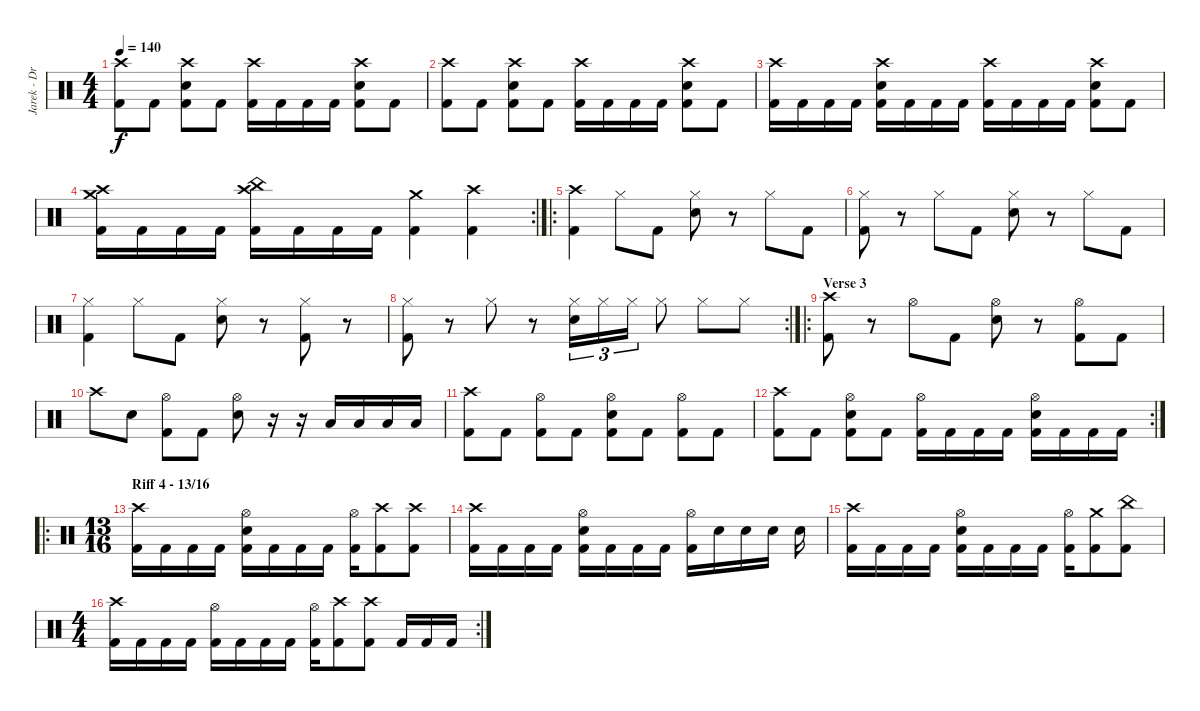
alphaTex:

\track ("Jarek - Drums" "Jarek - Dr") {instrument percussion}
\staff {score}
\articulation defaults
\ts (4 4)
\tempo 140
\clef neutral
\ks c
("Crash high (hit)" "Kick (hit) 2").8{dy f} "Kick (hit) 2".8 ("Crash high (hit)" "Snare (hit) 2" "Kick (hit) 2").8 "Kick (hit) 2".8 ("Crash high (hit)" "Kick (hit) 2").16 "Kick (hit) 2".16 "Kick (hit) 2".16 "Kick (hit) 2".16 ("Crash high (hit)" "Snare (hit) 2" "Kick (hit) 2").8 "Kick (hit) 2".8 |
("Crash high (hit)" "Kick (hit) 2").8 "Kick (hit) 2".8 ("Crash high (hit)" "Snare (hit) 2" "Kick (hit) 2").8 "Kick (hit) 2".8 ("Crash high (hit)" "Kick (hit) 2").16 "Kick (hit) 2".16 "Kick (hit) 2".16 "Kick (hit) 2".16 ("Crash high (hit)" "Snare (hit) 2" "Kick (hit) 2").8 "Kick (hit) 2".8 |
("Crash high (hit)" "Kick (hit) 2").16 "Kick (hit) 2".16 "Kick (hit) 2".16 "Kick (hit) 2".16 ("Crash high (hit)" "Snare (hit) 2" "Kick (hit) 2").16 "Kick (hit) 2".16 "Kick (hit) 2".16 "Kick (hit) 2".16 ("Crash high (hit)" "Kick (hit) 2").16 "Kick (hit) 2".16 "Kick (hit) 2".16 "Kick (hit) 2".16 ("Crash high (hit)" "Snare (hit) 2" "Kick (hit) 2").8 "Kick (hit) 2".8 |
\rc 2
("Crash high (hit)" "Crash medium (hit)" "Kick (hit) 2").16 "Kick (hit) 2".16 "Kick (hit) 2".16 "Kick (hit) 2".16 ("China (hit)" "Crash high (hit)" "Kick (hit) 2").16 "Kick (hit) 2".16 "Kick (hit) 2".16 "Kick (hit) 2".16 ("Crash medium (hit)" "Kick (hit) 2").4 ("Crash high (hit)" "Kick (hit) 2").4 |
\ro
("Crash high (hit)" "Kick (hit) 2").4 "Hi-Hat (closed)".8 "Kick (hit) 2".8 ("Hi-Hat (closed)" "Snare (hit) 2").8 r.8 "Hi-Hat (closed)".8 "Kick (hit) 2".8 |
("Hi-Hat (closed)" "Kick (hit) 2").8 r.8 "Hi-Hat (closed)".8 "Kick (hit) 2".8 ("Hi-Hat (closed)" "Snare (hit) 2").8 r.8 "Hi-Hat (closed)".8 "Kick (hit) 2".8 |
("Hi-Hat (closed)" "Kick (hit) 2").4 "Hi-Hat (closed)".8 "Kick (hit) 2".8 ("Hi-Hat (closed)" "Snare (hit) 2").8 r.8 ("Hi-Hat (closed)" "Kick (hit) 2").8 r.8 |
\rc 2
("Hi-Hat (closed)" "Kick (hit) 2").8 r.8 "Hi-Hat (closed)".8 r.8 ("Hi-Hat (closed)" "Snare (hit) 2").16{tu (3 2)} "Hi-Hat (closed)".16{tu (3 2)} "Hi-Hat (closed)".16{tu (3 2)} "Hi-Hat (closed)".8 "Hi-Hat (closed)".8 "Hi-Hat (closed)".8 |
\ro
\section ("" "Verse 3")
("Crash high (hit)" "Kick (hit) 2").8 r.8 "Hi-Hat (open)".8 "Kick (hit) 2".8 ("Hi-Hat (open)" "Snare (hit) 2").8 r.8 ("Hi-Hat (open)" "Kick (hit) 2").8 "Kick (hit) 2".8 |
"Crash high (hit)".8 "Snare (hit) 2".8 ("Hi-Hat (open)" "Kick (hit) 2").8 "Kick (hit) 2".8 ("Hi-Hat (open)" "Snare (hit) 2").8 r.16 r.16 "Low Tom (hit)".16 "Low Floor Tom (hit)".16 "Low Tom (hit)".16 "Low Floor Tom (hit)".16 |
("Crash high (hit)" "Kick (hit) 2").8 "Kick (hit) 2".8 ("Hi-Hat (open)" "Kick (hit) 2").8 "Kick (hit) 2".8 ("Hi-Hat (open)" "Snare (hit) 2" "Kick (hit) 2").8 "Kick (hit) 2".8 ("Hi-Hat (open)" "Kick (hit) 2").8 "Kick (hit) 2".8 |
\rc 2
("Crash high (hit)" "Kick (hit) 2").8 "Kick (hit) 2".8 ("Hi-Hat (open)" "Snare (hit) 2" "Kick (hit) 2").8 "Kick (hit) 2".8 ("Hi-Hat (open)" "Kick (hit) 2").16 "Kick (hit) 2".16 "Kick (hit) 2".16 "Kick (hit) 2".16 ("Hi-Hat (open)" "Snare (hit) 2" "Kick (hit) 2").16 "Kick (hit) 2".16 "Kick (hit) 2".16 "Kick (hit) 2".16 |
\ro
\ts (13 16)
\section ("" "Riff 4 - 13/16")
("Crash high (hit)" "Kick (hit) 2").16 "Kick (hit) 2".16 "Kick (hit) 2".16 "Kick (hit) 2".16 ("Hi-Hat (open)" "Snare (hit) 2" "Kick (hit) 2").16 "Kick (hit) 2".16 "Kick (hit) 2".16 "Kick (hit) 2".16 ("Hi-Hat (open)" "Kick (hit) 2").16 ("Crash high (hit)" "Kick (hit) 2").8 ("Crash high (hit)" "Kick (hit) 2").8 |
("Crash high (hit)" "Kick (hit) 2").16 "Kick (hit) 2".16 "Kick (hit) 2".16 "Kick (hit) 2".16 ("Hi-Hat (open)" "Snare (hit) 2" "Kick (hit) 2").16 "Kick (hit) 2".16 "Kick (hit) 2".16 "Kick (hit) 2".16 ("Hi-Hat (open)" "Kick (hit) 2").16 "Snare (hit) 2".16 "Snare (hit) 2".16 "Snare (hit) 2".16 "Snare (hit) 2".16 |
("Crash high (hit)" "Kick (hit) 2").16 "Kick (hit) 2".16 "Kick (hit) 2".16 "Kick (hit) 2".16 ("Hi-Hat (open)" "Snare (hit) 2" "Kick (hit) 2").16 "Kick (hit) 2".16 "Kick (hit) 2".16 "Kick (hit) 2".16 ("Hi-Hat (open)" "Kick (hit) 2").16 ("Crash medium (hit)" "Kick (hit) 2").8 ("China (hit)" "Kick (hit) 2").8 |
\rc 2
\ts (4 4)
("Crash high (hit)" "Kick (hit) 2").16 "Kick (hit) 2".16 "Kick (hit) 2".16 "Kick (hit) 2".16 ("Hi-Hat (open)" "Kick (hit) 2").16 "Kick (hit) 2".16 "Kick (hit) 2".16 "Kick (hit) 2".16 ("Hi-Hat (open)" "Kick (hit) 2").16 ("Crash high (hit)" "Kick (hit) 2").8 ("Crash high (hit)" "Kick (hit) 2").8 "Kick (hit) 2".16 "Kick (hit) 2".16 "Kick (hit) 2".16
